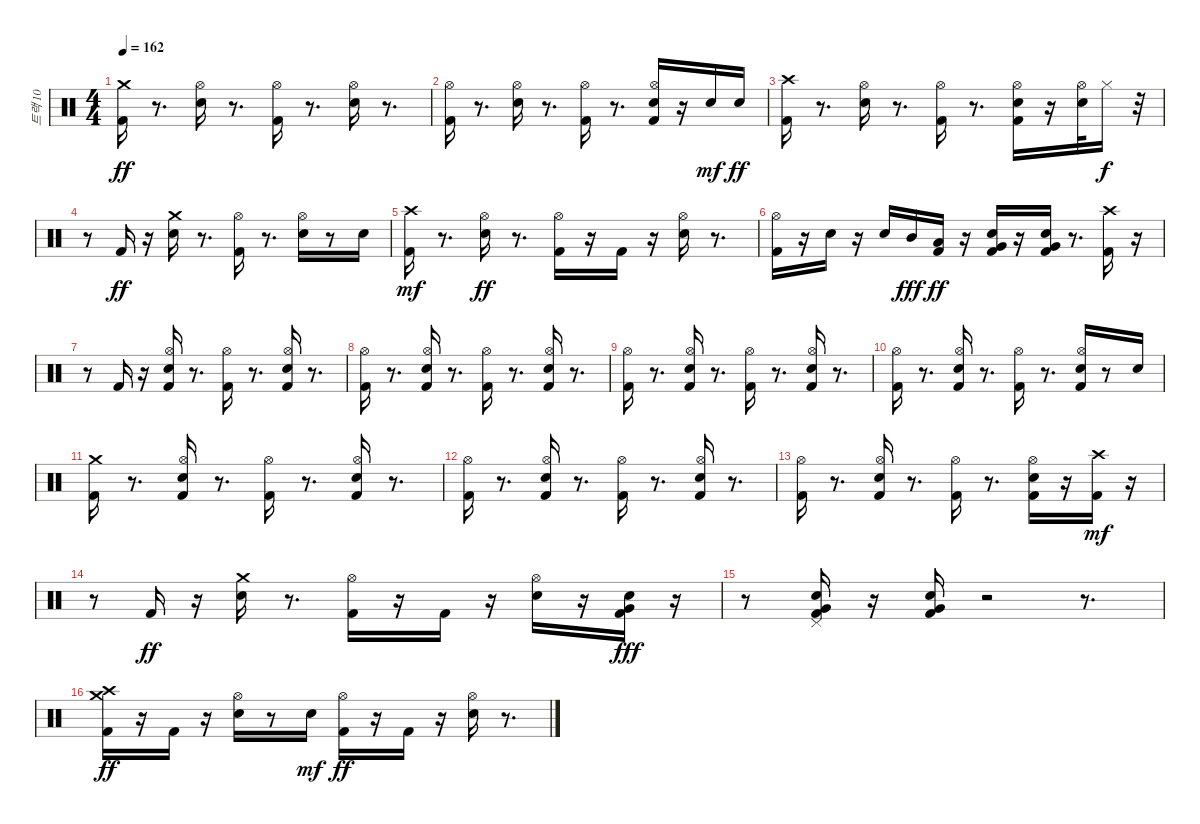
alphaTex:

\track ("트랙 10" "트랙 10") {instrument percussion}
\staff {score}
\articulation defaults
\ts (4 4)
\tempo 162
\clef neutral
\ks c
("Kick (hit) 2" "Crash medium (hit)").16{dy ff} r.8{d} ("Hi-Hat (open)" "Electric Snare (hit)").16 r.8{d} ("Hi-Hat (open)" "Kick (hit) 2").16 r.8{d} ("Hi-Hat (open)" "Electric Snare (hit)").16 r.8{d} |
("Hi-Hat (open)" "Kick (hit) 2").16 r.8{d} ("Hi-Hat (open)" "Electric Snare (hit)").16 r.8{d} ("Hi-Hat (open)" "Kick (hit) 2").16 r.8{d} ("Hi-Hat (open)" "Kick (hit) 2" "Electric Snare (hit)").16 r.16 "Electric Snare (hit)".16{dy mf} "Electric Snare (hit)".16{dy ff} |
("Kick (hit) 2" "Crash high (hit)").16 r.8{d} ("Hi-Hat (open)" "Electric Snare (hit)").16 r.8{d} ("Hi-Hat (open)" "Kick (hit) 2").16 r.8{d} ("Hi-Hat (open)" "Kick (hit) 2" "Electric Snare (hit)").16 r.16 ("Hi-Hat (open)" "Electric Snare (hit)").32 "Hi-Hat (closed)".16{dy f} r.32 |
r.8 "Kick (hit) 2".16{dy ff} r.16 ("Electric Snare (hit)" "Crash medium (hit)").16 r.8{d} ("Hi-Hat (open)" "Kick (hit) 2").16 r.8{d} ("Hi-Hat (open)" "Electric Snare (hit)").16 r.8 "Electric Snare (hit)".16 |
("Kick (hit) 2" "Crash high (hit)").16{dy mf} r.8{d} ("Hi-Hat (open)" "Electric Snare (hit)").16{dy ff} r.8{d} ("Hi-Hat (open)" "Kick (hit) 2").16 r.16 "Kick (hit) 2".16 r.16 ("Hi-Hat (open)" "Electric Snare (hit)").16 r.8{d} |
("Hi-Hat (open)" "Kick (hit) 2").16 r.16 "Electric Snare (hit)".16 r.16 "Electric Snare (hit)".16 "Mid Tom (hit)".16{dy fff} ("Kick (hit) 2" "Low Tom (hit)").16{dy ff} r.16 ("Kick (hit) 2" "Electric Snare (hit)" "Very Low Tom (hit)").16 r.16 ("Kick (hit) 2" "Electric Snare (hit)" "Very Low Tom (hit)").16 r.8{d} ("Kick (hit) 2" "Crash high (hit)").16 r.16 |
r.8 "Kick (hit) 2".16 r.16 ("Hi-Hat (open)" "Kick (hit) 2" "Electric Snare (hit)").16 r.8{d} ("Hi-Hat (open)" "Kick (hit) 2").16 r.8{d} ("Hi-Hat (open)" "Kick (hit) 2" "Electric Snare (hit)").16 r.8{d} |
("Hi-Hat (open)" "Kick (hit) 2").16 r.8{d} ("Hi-Hat (open)" "Kick (hit) 2" "Electric Snare (hit)").16 r.8{d} ("Hi-Hat (open)" "Kick (hit) 2").16 r.8{d} ("Hi-Hat (open)" "Kick (hit) 2" "Electric Snare (hit)").16 r.8{d} |
("Hi-Hat (open)" "Kick (hit) 2").16 r.8{d} ("Hi-Hat (open)" "Kick (hit) 2" "Electric Snare (hit)").16 r.8{d} ("Hi-Hat (open)" "Kick (hit) 2").16 r.8{d} ("Hi-Hat (open)" "Kick (hit) 2" "Electric Snare (hit)").16 r.8{d} |
("Hi-Hat (open)" "Kick (hit) 2").16 r.8{d} ("Hi-Hat (open)" "Kick (hit) 2" "Electric Snare (hit)").16 r.8{d} ("Hi-Hat (open)" "Kick (hit) 2").16 r.8{d} ("Hi-Hat (open)" "Kick (hit) 2" "Electric Snare (hit)").16 r.8 "Electric Snare (hit)".16 |
("Kick (hit) 2" "Crash medium (hit)").16 r.8{d} ("Hi-Hat (open)" "Kick (hit) 2" "Electric Snare (hit)").16 r.8{d} ("Hi-Hat (open)" "Kick (hit) 2").16 r.8{d} ("Hi-Hat (open)" "Kick (hit) 2" "Electric Snare (hit)").16 r.8{d} |
("Hi-Hat (open)" "Kick (hit) 2").16 r.8{d} ("Hi-Hat (open)" "Kick (hit) 2" "Electric Snare (hit)").16 r.8{d} ("Hi-Hat (open)" "Kick (hit) 2").16 r.8{d} ("Hi-Hat (open)" "Kick (hit) 2" "Electric Snare (hit)").16 r.8{d} |
("Hi-Hat (open)" "Kick (hit) 2").16 r.8{d} ("Hi-Hat (open)" "Kick (hit) 2" "Electric Snare (hit)").16 r.8{d} ("Hi-Hat (open)" "Kick (hit) 2").16 r.8{d} ("Hi-Hat (open)" "Kick (hit) 2" "Electric Snare (hit)").16 r.16 ("Kick (hit) 2" "Crash high (hit)").16{dy mf} r.16 |
r.8 "Kick (hit) 2".16{dy ff} r.16 ("Electric Snare (hit)" "Crash medium (hit)").16 r.8{d} ("Hi-Hat (open)" "Kick (hit) 2").16 r.16 "Kick (hit) 2".16 r.16 ("Hi-Hat (open)" "Electric Snare (hit)").16 r.16 ("Kick (hit) 2" "Electric Snare (hit)" "Very Low Tom (hit)").16{dy fff} r.16 |
r.8 ("Pedal Hi-Hat (hit)" "Kick (hit) 2" "Electric Snare (hit)" "Very Low Tom (hit)").16 r.16 ("Kick (hit) 2" "Electric Snare (hit)" "Very Low Tom (hit)").16 r.2 r.8{d} |
("Kick (hit) 2" "Crash high (hit)" "Crash medium (hit)").16{dy ff} r.16 "Kick (hit) 2".16 r.16 ("Hi-Hat (open)" "Electric Snare (hit)").16 r.8 "Electric Snare (hit)".16{dy mf} ("Hi-Hat (open)" "Kick (hit) 2").16{dy ff} r.16 "Kick (hit) 2".16 r.16 ("Hi-Hat (open)" "Electric Snare (hit)").16 r.8{d}
